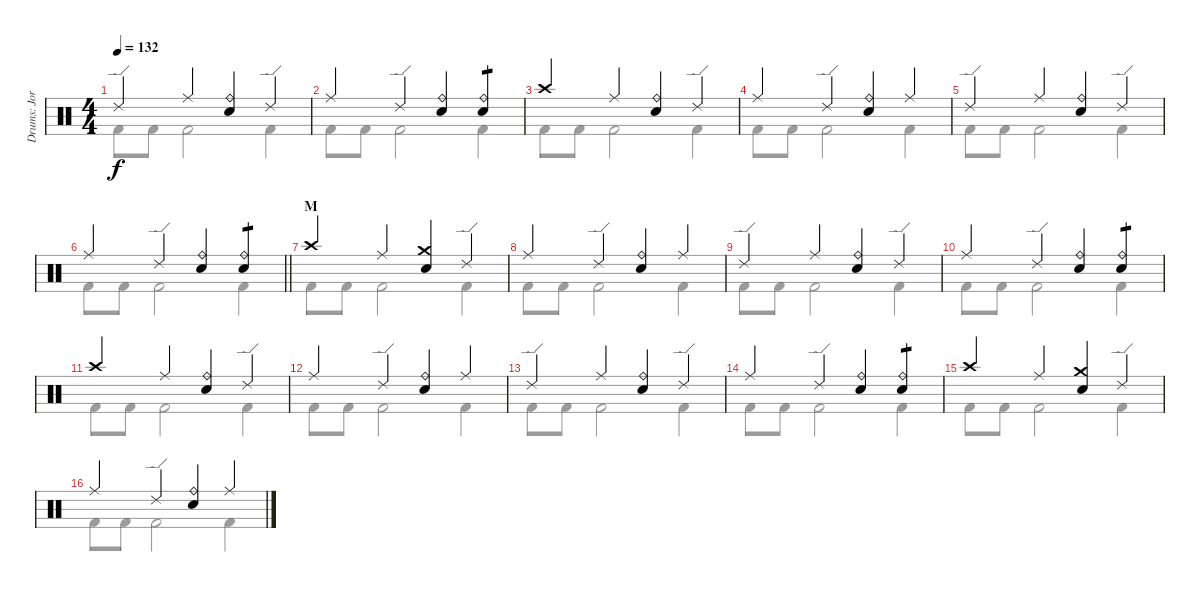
\track ("Drums: Jorg" "Drums: Jor") {instrument percussion}
\staff {score}
\articulation defaults
\voice
\ts (4 4)
\tempo 132
\clef neutral
\ks c "Ride (edge) 2".4{dy f} "Ride (middle)".4
("Ride (bell)" "Snare (hit) 2").4 "Ride (edge) 2".4 |
"Ride (middle)".4 "Ride (edge) 2".4 ("Ride (bell)" "Snare (hit) 2").4 ("Ride (bell)" "Snare (hit) 2").4{tp 1} |
"Crash high (hit)".4 "Ride (middle)".4 ("Ride (bell)" "Snare (hit) 2").4 "Ride (edge) 2".4 |
"Ride (middle)".4 "Ride (edge) 2".4 ("Ride (bell)" "Snare (hit) 2").4 "Ride (middle)".4 |
"Ride (edge) 2".4 "Ride (middle)".4 ("Ride (bell)" "Snare (hit) 2").4 "Ride (edge) 2".4 |
\barLineRight lightlight "Ride (middle)".4 "Ride (edge) 2".4
("Ride (bell)" "Snare (hit) 2").4 ("Ride (bell)" "Snare (hit) 2").4{tp 1} |
\section ("" "M")
"Crash high (hit)".4 "Ride (middle)".4 ("Crash medium (hit)" "Snare (hit) 2").4 "Ride (edge) 2".4 |
"Ride (middle)".4 "Ride (edge) 2".4 ("Ride (bell)" "Snare (hit) 2").4 "Ride (middle)".4 |
"Ride (edge) 2".4 "Ride (middle)".4 ("Ride (bell)" "Snare (hit) 2").4 "Ride (edge) 2".4 |
"Ride (middle)".4 "Ride (edge) 2".4 ("Ride (bell)" "Snare (hit) 2").4 ("Ride (bell)" "Snare (hit) 2").4{tp 1} |
"Crash high (hit)".4 "Ride (middle)".4 ("Ride (bell)" "Snare (hit) 2").4 "Ride (edge) 2".4 |
"Ride (middle)".4 "Ride (edge) 2".4 ("Ride (bell)" "Snare (hit) 2").4 "Ride (middle)".4 |
"Ride (edge) 2".4 "Ride (middle)".4 ("Ride (bell)" "Snare (hit) 2").4 "Ride (edge) 2".4 |
"Ride (middle)".4 "Ride (edge) 2".4 ("Ride (bell)" "Snare (hit) 2").4 ("Ride (bell)" "Snare (hit) 2").4{tp 1} |
"Crash high (hit)".4 "Ride (middle)".4 ("Crash medium (hit)" "Snare (hit) 2").4 "Ride (edge) 2".4 |
"Ride (middle)".4 "Ride (edge) 2".4 ("Ride (bell)" "Snare (hit) 2").4 "Ride (middle)".4
\voice
\clef neutral
\ottava regular
\simile none
\ks c "Kick (hit) 2".8{dy f} "Kick (hit) 2".8 "Kick (hit) 2".2 "Kick (hit) 2".4
|
"Kick (hit) 2".8 "Kick (hit) 2".8 "Kick (hit) 2".2 "Kick (hit) 2".4 |
"Kick (hit) 2".8 "Kick (hit) 2".8 "Kick (hit) 2".2 "Kick (hit) 2".4 |
"Kick (hit) 2".8 "Kick (hit) 2".8 "Kick (hit) 2".2 "Kick (hit) 2".4 |
"Kick (hit) 2".8 "Kick (hit) 2".8 "Kick (hit) 2".2 "Kick (hit) 2".4 |
\barLineRight lightlight "Kick (hit) 2".8 "Kick (hit) 2".8 "Kick (hit) 2".2 "Kick (hit) 2".4
|
"Kick (hit) 2".8 "Kick (hit) 2".8 "Kick (hit) 2".2 "Kick (hit) 2".4 |
"Kick (hit) 2".8 "Kick (hit) 2".8 "Kick (hit) 2".2 "Kick (hit) 2".4 |
"Kick (hit) 2".8 "Kick (hit) 2".8 "Kick (hit) 2".2 "Kick (hit) 2".4 |
"Kick (hit) 2".8 "Kick (hit) 2".8 "Kick (hit) 2".2 "Kick (hit) 2".4 |
"Kick (hit) 2".8 "Kick (hit) 2".8 "Kick (hit) 2".2 "Kick (hit) 2".4 |
"Kick (hit) 2".8 "Kick (hit) 2".8 "Kick (hit) 2".2 "Kick (hit) 2".4 |
"Kick (hit) 2".8 "Kick (hit) 2".8 "Kick (hit) 2".2 "Kick (hit) 2".4 |
"Kick (hit) 2".8 "Kick (hit) 2".8 "Kick (hit) 2".2 "Kick (hit) 2".4 |
"Kick (hit) 2".8 "Kick (hit) 2".8 "Kick (hit) 2".2 "Kick (hit) 2".4 |
"Kick (hit) 2".8 "Kick (hit) 2".8 "Kick (hit) 2".2 "Kick (hit) 2".4
